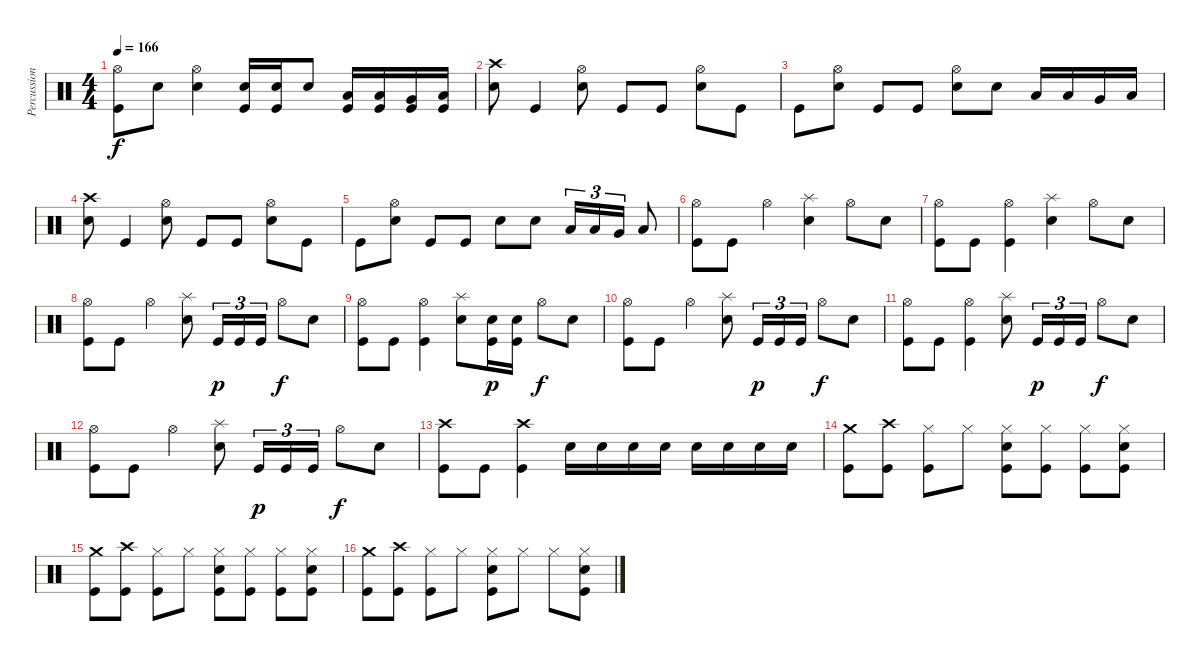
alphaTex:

\track ("Percussion" "Percussion") {instrument percussion}
\staff {score}
\articulation defaults
\ts (4 4)
\tempo 166
\clef neutral
\ks c
("Hi-Hat (open)" "Kick (hit)").8{dy f} "Electric Snare (hit)".8 ("Hi-Hat (open)" "Electric Snare (hit)").4 ("Electric Snare (hit)" "Kick (hit)").16 ("Electric Snare (hit)" "Kick (hit)").16 "Electric Snare (hit)".8 ("Low Tom (hit)" "Kick (hit)").16 ("Low Tom (hit)" "Kick (hit)").16 ("Very Low Tom (hit)" "Kick (hit)").16 ("Low Floor Tom (hit)" "Kick (hit)").16 |
("Crash high (hit)" "Electric Snare (hit)").8 "Kick (hit)".4 ("Hi-Hat (open)" "Electric Snare (hit)").8 "Kick (hit)".8 "Kick (hit)".8 ("Hi-Hat (open)" "Electric Snare (hit)").8 "Kick (hit)".8 |
"Kick (hit)".8 ("Hi-Hat (open)" "Electric Snare (hit)").8 "Kick (hit)".8 "Kick (hit)".8 ("Hi-Hat (open)" "Electric Snare (hit)").8 "Electric Snare (hit)".8 "Low Tom (hit)".16 "Low Tom (hit)".16 "Very Low Tom (hit)".16 "Low Floor Tom (hit)".16 |
("Crash high (hit)" "Electric Snare (hit)").8 "Kick (hit)".4 ("Hi-Hat (open)" "Electric Snare (hit)").8 "Kick (hit)".8 "Kick (hit)".8 ("Hi-Hat (open)" "Electric Snare (hit)").8 "Kick (hit)".8 |
"Kick (hit)".8 ("Hi-Hat (open)" "Electric Snare (hit)").8 "Kick (hit)".8 "Kick (hit)".8 "Electric Snare (hit)".8 "Electric Snare (hit)".8 "Low Tom (hit)".16{tu (3 2)} "Low Tom (hit)".16{tu (3 2)} "Very Low Tom (hit)".16{tu (3 2)} "Low Floor Tom (hit)".8 |
("Hi-Hat (open)" "Kick (hit)").8 "Kick (hit)".8 "Hi-Hat (open)".4 ("Splash (hit)" "Electric Snare (hit)").4 "Hi-Hat (open)".8 "Electric Snare (hit)".8 |
("Hi-Hat (open)" "Kick (hit)").8 "Kick (hit)".8 ("Hi-Hat (open)" "Kick (hit)").4 ("Splash (hit)" "Electric Snare (hit)").4 "Hi-Hat (open)".8 "Electric Snare (hit)".8 |
("Hi-Hat (open)" "Kick (hit)").8 "Kick (hit)".8 "Hi-Hat (open)".4 ("Splash (hit)" "Electric Snare (hit)").8 "Kick (hit)".16{tu (3 2) dy p} "Kick (hit)".16{tu (3 2)} "Kick (hit)".16{tu (3 2)} "Hi-Hat (open)".8{dy f} "Electric Snare (hit)".8 |
("Hi-Hat (open)" "Kick (hit)").8 "Kick (hit)".8 ("Hi-Hat (open)" "Kick (hit)").4 ("Splash (hit)" "Electric Snare (hit)").8 ("Electric Snare (hit)" "Kick (hit)").16{dy p} ("Electric Snare (hit)" "Kick (hit)").16 "Hi-Hat (open)".8{dy f} "Electric Snare (hit)".8 |
("Hi-Hat (open)" "Kick (hit)").8 "Kick (hit)".8 "Hi-Hat (open)".4 ("Splash (hit)" "Electric Snare (hit)").8 "Kick (hit)".16{tu (3 2) dy p} "Kick (hit)".16{tu (3 2)} "Kick (hit)".16{tu (3 2)} "Hi-Hat (open)".8{dy f} "Electric Snare (hit)".8 |
("Hi-Hat (open)" "Kick (hit)").8 "Kick (hit)".8 ("Hi-Hat (open)" "Kick (hit)").4 ("Splash (hit)" "Electric Snare (hit)").8 "Kick (hit)".16{tu (3 2) dy p} "Kick (hit)".16{tu (3 2)} "Kick (hit)".16{tu (3 2)} "Hi-Hat (open)".8{dy f} "Electric Snare (hit)".8 |
("Hi-Hat (open)" "Kick (hit)").8 "Kick (hit)".8 "Hi-Hat (open)".4 ("Splash (hit)" "Electric Snare (hit)").8 "Kick (hit)".16{tu (3 2) dy p} "Kick (hit)".16{tu (3 2)} "Kick (hit)".16{tu (3 2)} "Hi-Hat (open)".8{dy f} "Electric Snare (hit)".8 |
("Crash high (hit)" "Kick (hit)").8 "Kick (hit)".8 ("Crash high (hit)" "Kick (hit)").4 "Electric Snare (hit)".16 "Electric Snare (hit)".16 "Electric Snare (hit)".16 "Electric Snare (hit)".16 "Electric Snare (hit)".16 "Electric Snare (hit)".16 "Electric Snare (hit)".16 "Electric Snare (hit)".16 |
("Crash medium (hit)" "Kick (hit)").8 ("Crash high (hit)" "Kick (hit)").8 ("Hi-Hat (closed)" "Kick (hit)").8 "Hi-Hat (closed)".8 ("Hi-Hat (closed)" "Electric Snare (hit)" "Kick (hit)").8 ("Hi-Hat (closed)" "Kick (hit)").8 ("Hi-Hat (closed)" "Kick (hit)").8 ("Hi-Hat (closed)" "Electric Snare (hit)" "Kick (hit)").8 |
("Crash medium (hit)" "Kick (hit)").8 ("Crash high (hit)" "Kick (hit)").8 ("Hi-Hat (closed)" "Kick (hit)").8 "Hi-Hat (closed)".8 ("Hi-Hat (closed)" "Electric Snare (hit)" "Kick (hit)").8 ("Hi-Hat (closed)" "Kick (hit)").8 ("Hi-Hat (closed)" "Kick (hit)").8 ("Hi-Hat (closed)" "Electric Snare (hit)" "Kick (hit)").8 |
("Crash medium (hit)" "Kick (hit)").8 ("Crash high (hit)" "Kick (hit)").8 ("Hi-Hat (closed)" "Kick (hit)").8 "Hi-Hat (closed)".8 ("Hi-Hat (closed)" "Electric Snare (hit)" "Kick (hit)").8 "Hi-Hat (closed)".8 "Hi-Hat (closed)".8 ("Hi-Hat (closed)" "Electric Snare (hit)" "Kick (hit)").8
